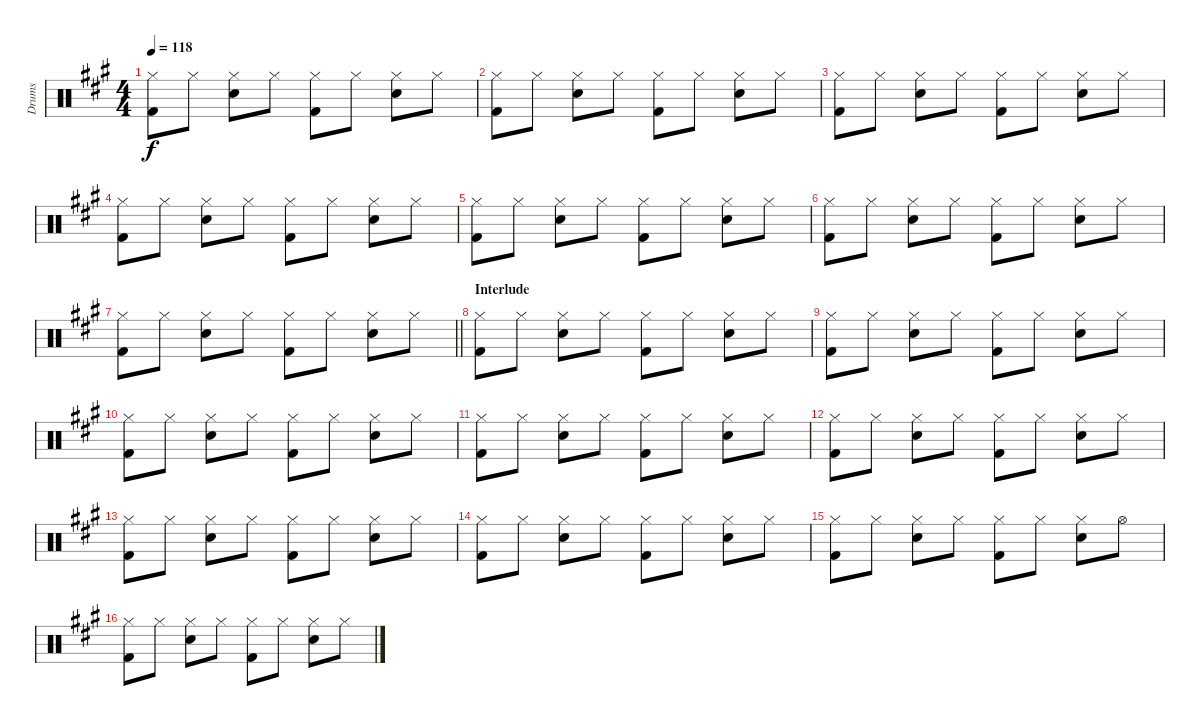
\track ("Drums" "Drums") {instrument percussion}
\staff {score}
\articulation defaults
\ts (4 4)
\tempo 118
\clef neutral
\ks f#minor
("Hi-Hat (closed)" "Kick (hit) 2").8{dy f} "Hi-Hat (closed)".8 ("Hi-Hat (closed)" "Snare (hit) 2").8 "Hi-Hat (closed)".8 ("Hi-Hat (closed)" "Kick (hit) 2").8 "Hi-Hat (closed)".8 ("Hi-Hat (closed)" "Snare (hit) 2").8 "Hi-Hat (closed)".8 |
("Hi-Hat (closed)" "Kick (hit) 2").8 "Hi-Hat (closed)".8 ("Hi-Hat (closed)" "Snare (hit) 2").8 "Hi-Hat (closed)".8 ("Hi-Hat (closed)" "Kick (hit) 2").8 "Hi-Hat (closed)".8 ("Hi-Hat (closed)" "Snare (hit) 2").8 "Hi-Hat (closed)".8 |
("Hi-Hat (closed)" "Kick (hit) 2").8 "Hi-Hat (closed)".8 ("Hi-Hat (closed)" "Snare (hit) 2").8 "Hi-Hat (closed)".8 ("Hi-Hat (closed)" "Kick (hit) 2").8 "Hi-Hat (closed)".8 ("Hi-Hat (closed)" "Snare (hit) 2").8 "Hi-Hat (closed)".8 |
("Hi-Hat (closed)" "Kick (hit) 2").8 "Hi-Hat (closed)".8 ("Hi-Hat (closed)" "Snare (hit) 2").8 "Hi-Hat (closed)".8 ("Hi-Hat (closed)" "Kick (hit) 2").8 "Hi-Hat (closed)".8 ("Hi-Hat (closed)" "Snare (hit) 2").8 "Hi-Hat (closed)".8 |
("Hi-Hat (closed)" "Kick (hit) 2").8 "Hi-Hat (closed)".8 ("Hi-Hat (closed)" "Snare (hit) 2").8 "Hi-Hat (closed)".8 ("Hi-Hat (closed)" "Kick (hit) 2").8 "Hi-Hat (closed)".8 ("Hi-Hat (closed)" "Snare (hit) 2").8 "Hi-Hat (closed)".8 |
("Hi-Hat (closed)" "Kick (hit) 2").8 "Hi-Hat (closed)".8 ("Hi-Hat (closed)" "Snare (hit) 2").8 "Hi-Hat (closed)".8 ("Hi-Hat (closed)" "Kick (hit) 2").8 "Hi-Hat (closed)".8 ("Hi-Hat (closed)" "Snare (hit) 2").8 "Hi-Hat (closed)".8 |
\barLineRight lightlight
("Hi-Hat (closed)" "Kick (hit) 2").8 "Hi-Hat (closed)".8 ("Hi-Hat (closed)" "Snare (hit) 2").8 "Hi-Hat (closed)".8 ("Hi-Hat (closed)" "Kick (hit) 2").8 "Hi-Hat (closed)".8 ("Hi-Hat (closed)" "Snare (hit) 2").8 "Hi-Hat (closed)".8 |
\section ("" "Interlude")
("Hi-Hat (closed)" "Kick (hit) 2").8 "Hi-Hat (closed)".8 ("Hi-Hat (closed)" "Snare (hit) 2").8 "Hi-Hat (closed)".8 ("Hi-Hat (closed)" "Kick (hit) 2").8 "Hi-Hat (closed)".8 ("Hi-Hat (closed)" "Snare (hit) 2").8 "Hi-Hat (closed)".8 |
("Hi-Hat (closed)" "Kick (hit) 2").8 "Hi-Hat (closed)".8 ("Hi-Hat (closed)" "Snare (hit) 2").8 "Hi-Hat (closed)".8 ("Hi-Hat (closed)" "Kick (hit) 2").8 "Hi-Hat (closed)".8 ("Hi-Hat (closed)" "Snare (hit) 2").8 "Hi-Hat (closed)".8 |
("Hi-Hat (closed)" "Kick (hit) 2").8 "Hi-Hat (closed)".8 ("Hi-Hat (closed)" "Snare (hit) 2").8 "Hi-Hat (closed)".8 ("Hi-Hat (closed)" "Kick (hit) 2").8 "Hi-Hat (closed)".8 ("Hi-Hat (closed)" "Snare (hit) 2").8 "Hi-Hat (closed)".8 |
("Hi-Hat (closed)" "Kick (hit) 2").8 "Hi-Hat (closed)".8 ("Hi-Hat (closed)" "Snare (hit) 2").8 "Hi-Hat (closed)".8 ("Hi-Hat (closed)" "Kick (hit) 2").8 "Hi-Hat (closed)".8 ("Hi-Hat (closed)" "Snare (hit) 2").8 "Hi-Hat (closed)".8 |
("Hi-Hat (closed)" "Kick (hit) 2").8 "Hi-Hat (closed)".8 ("Hi-Hat (closed)" "Snare (hit) 2").8 "Hi-Hat (closed)".8 ("Hi-Hat (closed)" "Kick (hit) 2").8 "Hi-Hat (closed)".8 ("Hi-Hat (closed)" "Snare (hit) 2").8 "Hi-Hat (closed)".8 |
("Hi-Hat (closed)" "Kick (hit) 2").8 "Hi-Hat (closed)".8 ("Hi-Hat (closed)" "Snare (hit) 2").8 "Hi-Hat (closed)".8 ("Hi-Hat (closed)" "Kick (hit) 2").8 "Hi-Hat (closed)".8 ("Hi-Hat (closed)" "Snare (hit) 2").8 "Hi-Hat (closed)".8 |
("Hi-Hat (closed)" "Kick (hit) 2").8 "Hi-Hat (closed)".8 ("Hi-Hat (closed)" "Snare (hit) 2").8 "Hi-Hat (closed)".8 ("Hi-Hat (closed)" "Kick (hit) 2").8 "Hi-Hat (closed)".8 ("Hi-Hat (closed)" "Snare (hit) 2").8 "Hi-Hat (closed)".8 |
("Hi-Hat (closed)" "Kick (hit) 2").8 "Hi-Hat (closed)".8 ("Hi-Hat (closed)" "Snare (hit) 2").8 "Hi-Hat (closed)".8 ("Hi-Hat (closed)" "Kick (hit) 2").8 "Hi-Hat (closed)".8 ("Hi-Hat (closed)" "Snare (hit) 2").8 "Hi-Hat (open)".8 |
("Hi-Hat (closed)" "Kick (hit) 2").8 "Hi-Hat (closed)".8 ("Hi-Hat (closed)" "Snare (hit) 2").8 "Hi-Hat (closed)".8 ("Hi-Hat (closed)" "Kick (hit) 2").8 "Hi-Hat (closed)".8 ("Hi-Hat (closed)" "Snare (hit) 2").8 "Hi-Hat (closed)".8
